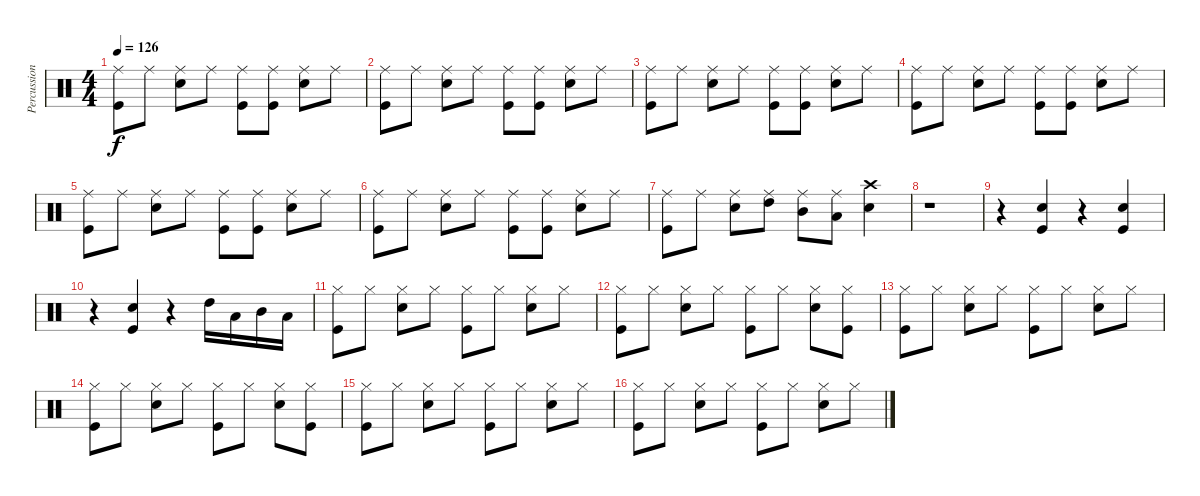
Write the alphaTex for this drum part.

\track ("Percussion" "Percussion") {instrument percussion}
\staff {score}
\articulation defaults
\ts (4 4)
\tempo 126
\clef neutral
\ks c
("Ride (middle)" "Kick (hit)").8{dy f} "Ride (middle)".8 ("Ride (middle)" "Electric Snare (hit)").8 "Ride (middle)".8 ("Ride (middle)" "Kick (hit)").8 ("Ride (middle)" "Kick (hit)").8 ("Ride (middle)" "Electric Snare (hit)").8 "Ride (middle)".8 |
("Ride (middle)" "Kick (hit)").8 "Ride (middle)".8 ("Ride (middle)" "Electric Snare (hit)").8 "Ride (middle)".8 ("Ride (middle)" "Kick (hit)").8 ("Ride (middle)" "Kick (hit)").8 ("Ride (middle)" "Electric Snare (hit)").8 "Ride (middle)".8 |
("Ride (middle)" "Kick (hit)").8 "Ride (middle)".8 ("Ride (middle)" "Electric Snare (hit)").8 "Ride (middle)".8 ("Ride (middle)" "Kick (hit)").8 ("Ride (middle)" "Kick (hit)").8 ("Ride (middle)" "Electric Snare (hit)").8 "Ride (middle)".8 |
("Ride (middle)" "Kick (hit)").8 "Ride (middle)".8 ("Ride (middle)" "Electric Snare (hit)").8 "Ride (middle)".8 ("Ride (middle)" "Kick (hit)").8 ("Ride (middle)" "Kick (hit)").8 ("Ride (middle)" "Electric Snare (hit)").8 "Ride (middle)".8 |
("Ride (middle)" "Kick (hit)").8 "Ride (middle)".8 ("Ride (middle)" "Electric Snare (hit)").8 "Ride (middle)".8 ("Ride (middle)" "Kick (hit)").8 ("Ride (middle)" "Kick (hit)").8 ("Ride (middle)" "Electric Snare (hit)").8 "Ride (middle)".8 |
("Ride (middle)" "Kick (hit)").8 "Ride (middle)".8 ("Ride (middle)" "Electric Snare (hit)").8 "Ride (middle)".8 ("Ride (middle)" "Kick (hit)").8 ("Ride (middle)" "Kick (hit)").8 ("Ride (middle)" "Electric Snare (hit)").8 "Ride (middle)".8 |
("Ride (middle)" "Kick (hit)").8 "Ride (middle)".8 ("Ride (middle)" "Electric Snare (hit)").8 ("Ride (middle)" "High Tom (hit)").8 ("Ride (middle)" "Mid Tom (hit)").8 ("Ride (middle)" "Low Tom (hit)").8 ("Crash high (hit)" "Electric Snare (hit)").4 |
r.1 |
r.4 ("Electric Snare (hit)" "Kick (hit)").4 r.4 ("Electric Snare (hit)" "Kick (hit)").4 |
r.4 ("Electric Snare (hit)" "Kick (hit)").4 r.4 "High Tom (hit)".16 "Low Tom (hit)".16 "Mid Tom (hit)".16 "Low Floor Tom (hit)".16 |
("Hi-Hat (closed)" "Kick (hit)").8 "Hi-Hat (closed)".8 ("Hi-Hat (closed)" "Electric Snare (hit)").8 "Hi-Hat (closed)".8 ("Hi-Hat (closed)" "Kick (hit)").8 "Hi-Hat (closed)".8 ("Hi-Hat (closed)" "Electric Snare (hit)").8 "Hi-Hat (closed)".8 |
("Hi-Hat (closed)" "Kick (hit)").8 "Hi-Hat (closed)".8 ("Hi-Hat (closed)" "Electric Snare (hit)").8 "Hi-Hat (closed)".8 ("Hi-Hat (closed)" "Kick (hit)").8 "Hi-Hat (closed)".8 ("Hi-Hat (closed)" "Electric Snare (hit)").8 ("Hi-Hat (closed)" "Kick (hit)").8 |
("Hi-Hat (closed)" "Kick (hit)").8 "Hi-Hat (closed)".8 ("Hi-Hat (closed)" "Electric Snare (hit)").8 "Hi-Hat (closed)".8 ("Hi-Hat (closed)" "Kick (hit)").8 "Hi-Hat (closed)".8 ("Hi-Hat (closed)" "Electric Snare (hit)").8 "Hi-Hat (closed)".8 |
("Hi-Hat (closed)" "Kick (hit)").8 "Hi-Hat (closed)".8 ("Hi-Hat (closed)" "Electric Snare (hit)").8 "Hi-Hat (closed)".8 ("Hi-Hat (closed)" "Kick (hit)").8 "Hi-Hat (closed)".8 ("Hi-Hat (closed)" "Electric Snare (hit)").8 ("Hi-Hat (closed)" "Kick (hit)").8 |
("Hi-Hat (closed)" "Kick (hit)").8 "Hi-Hat (closed)".8 ("Hi-Hat (closed)" "Electric Snare (hit)").8 "Hi-Hat (closed)".8 ("Hi-Hat (closed)" "Kick (hit)").8 "Hi-Hat (closed)".8 ("Hi-Hat (closed)" "Electric Snare (hit)").8 "Hi-Hat (closed)".8 |
("Hi-Hat (closed)" "Kick (hit)").8 "Hi-Hat (closed)".8 ("Hi-Hat (closed)" "Electric Snare (hit)").8 "Hi-Hat (closed)".8 ("Hi-Hat (closed)" "Kick (hit)").8 "Hi-Hat (closed)".8 ("Hi-Hat (closed)" "Electric Snare (hit)").8 "Hi-Hat (closed)".8
